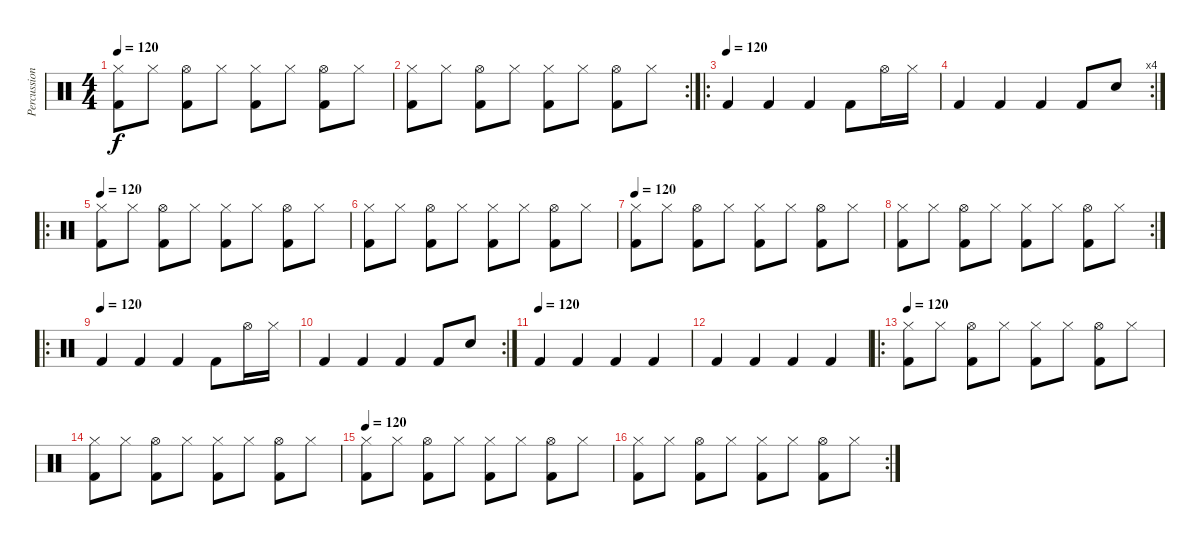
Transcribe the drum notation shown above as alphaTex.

\track ("Percussions" "Percussion") {instrument percussion}
\staff {score}
\articulation defaults
\ts (4 4)
\tempo 120
\clef neutral
\ks c
("Kick (hit) 2" "Hi-Hat (closed)").8{dy f} "Hi-Hat (closed)".8 ("Kick (hit) 2" "Hi-Hat (open)").8 "Hi-Hat (closed)".8 ("Kick (hit) 2" "Hi-Hat (closed)").8 "Hi-Hat (closed)".8 ("Kick (hit) 2" "Hi-Hat (open)").8 "Hi-Hat (closed)".8 |
\rc 2
("Kick (hit) 2" "Hi-Hat (closed)").8 "Hi-Hat (closed)".8 ("Kick (hit) 2" "Hi-Hat (open)").8 "Hi-Hat (closed)".8 ("Kick (hit) 2" "Hi-Hat (closed)").8 "Hi-Hat (closed)".8 ("Kick (hit) 2" "Hi-Hat (open)").8 "Hi-Hat (closed)".8 |
\ro
\tempo (120)
"Kick (hit) 2".4 "Kick (hit) 2".4 "Kick (hit) 2".4 "Kick (hit) 2".8 "Hi-Hat (open)".16 "Hi-Hat (closed)".16 |
\rc 4 "Kick (hit) 2".4 "Kick (hit) 2".4 "Kick (hit) 2".4 "Kick (hit) 2".8 "Electric Snare (hit)".8
|
\ro
\tempo 120
("Kick (hit) 2" "Hi-Hat (closed)").8 "Hi-Hat (closed)".8 ("Kick (hit) 2" "Hi-Hat (open)").8 "Hi-Hat (closed)".8 ("Kick (hit) 2" "Hi-Hat (closed)").8 "Hi-Hat (closed)".8 ("Kick (hit) 2" "Hi-Hat (open)").8 "Hi-Hat (closed)".8 |
("Kick (hit) 2" "Hi-Hat (closed)").8 "Hi-Hat (closed)".8 ("Kick (hit) 2" "Hi-Hat (open)").8 "Hi-Hat (closed)".8 ("Kick (hit) 2" "Hi-Hat (closed)").8 "Hi-Hat (closed)".8 ("Kick (hit) 2" "Hi-Hat (open)").8 "Hi-Hat (closed)".8 |
\tempo 120
("Kick (hit) 2" "Hi-Hat (closed)").8 "Hi-Hat (closed)".8 ("Kick (hit) 2" "Hi-Hat (open)").8 "Hi-Hat (closed)".8 ("Kick (hit) 2" "Hi-Hat (closed)").8 "Hi-Hat (closed)".8 ("Kick (hit) 2" "Hi-Hat (open)").8 "Hi-Hat (closed)".8 |
\rc 2
("Kick (hit) 2" "Hi-Hat (closed)").8 "Hi-Hat (closed)".8 ("Kick (hit) 2" "Hi-Hat (open)").8 "Hi-Hat (closed)".8 ("Kick (hit) 2" "Hi-Hat (closed)").8 "Hi-Hat (closed)".8 ("Kick (hit) 2" "Hi-Hat (open)").8 "Hi-Hat (closed)".8 |
\ro
\tempo (120)
"Kick (hit) 2".4 "Kick (hit) 2".4 "Kick (hit) 2".4 "Kick (hit) 2".8 "Hi-Hat (open)".16 "Hi-Hat (closed)".16 |
\rc 2 "Kick (hit) 2".4 "Kick (hit) 2".4 "Kick (hit) 2".4 "Kick (hit) 2".8 "Electric Snare (hit)".8
|
\tempo (120)
"Kick (hit) 2".4 "Kick (hit) 2".4 "Kick (hit) 2".4 "Kick (hit) 2".4 |
"Kick (hit) 2".4 "Kick (hit) 2".4 "Kick (hit) 2".4 "Kick (hit) 2".4 |
\ro
\tempo 120
("Kick (hit) 2" "Hi-Hat (closed)").8 "Hi-Hat (closed)".8 ("Kick (hit) 2" "Hi-Hat (open)").8 "Hi-Hat (closed)".8 ("Kick (hit) 2" "Hi-Hat (closed)").8 "Hi-Hat (closed)".8 ("Kick (hit) 2" "Hi-Hat (open)").8 "Hi-Hat (closed)".8 |
("Kick (hit) 2" "Hi-Hat (closed)").8 "Hi-Hat (closed)".8 ("Kick (hit) 2" "Hi-Hat (open)").8 "Hi-Hat (closed)".8 ("Kick (hit) 2" "Hi-Hat (closed)").8 "Hi-Hat (closed)".8 ("Kick (hit) 2" "Hi-Hat (open)").8 "Hi-Hat (closed)".8 |
\tempo 120
("Kick (hit) 2" "Hi-Hat (closed)").8 "Hi-Hat (closed)".8 ("Kick (hit) 2" "Hi-Hat (open)").8 "Hi-Hat (closed)".8 ("Kick (hit) 2" "Hi-Hat (closed)").8 "Hi-Hat (closed)".8 ("Kick (hit) 2" "Hi-Hat (open)").8 "Hi-Hat (closed)".8 |
\rc 2
("Kick (hit) 2" "Hi-Hat (closed)").8 "Hi-Hat (closed)".8 ("Kick (hit) 2" "Hi-Hat (open)").8 "Hi-Hat (closed)".8 ("Kick (hit) 2" "Hi-Hat (closed)").8 "Hi-Hat (closed)".8 ("Kick (hit) 2" "Hi-Hat (open)").8 "Hi-Hat (closed)".8
